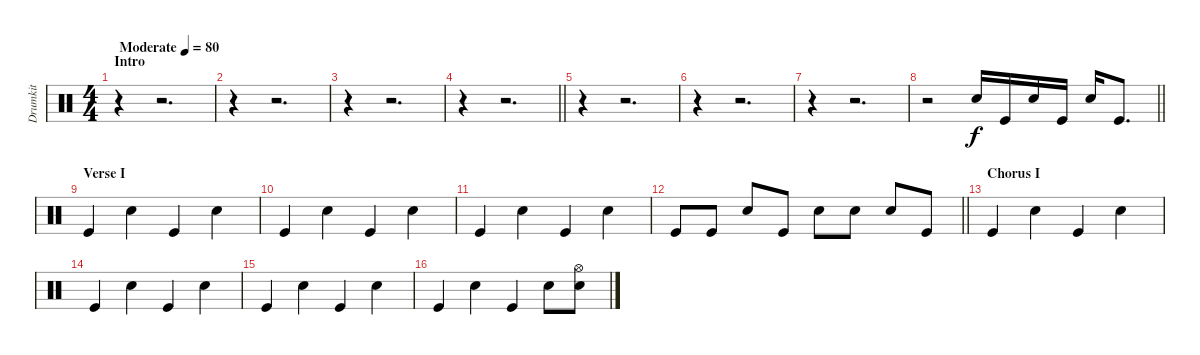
\track ("Drumkit" "Drumkit") {instrument percussion}
\staff {score}
\articulation defaults
\ts (4 4)
\section ("" "Intro")
\tempo (80 "Moderate")
\clef neutral
\ks c
r.4{dy f} r.2{d} |
r.4 r.2{d} |
r.4 r.2{d} |
\barLineRight lightlight
r.4 r.2{d} |
r.4 r.2{d} |
r.4 r.2{d} |
r.4 r.2{d} |
\barLineRight lightlight
r.2 "Snare (hit) 2".16 "Kick (hit)".16 "Snare (hit) 2".16 "Kick (hit)".16 "Snare (hit) 2".16 "Kick (hit)".8{d} |
\section ("" "Verse I")
"Kick (hit)".4 "Snare (hit) 2".4 "Kick (hit)".4 "Snare (hit) 2".4 |
"Kick (hit)".4 "Snare (hit) 2".4 "Kick (hit)".4 "Snare (hit) 2".4 |
"Kick (hit)".4 "Snare (hit) 2".4 "Kick (hit)".4 "Snare (hit) 2".4 |
\barLineRight lightlight "Kick (hit)".8 "Kick (hit)".8 "Snare (hit) 2".8 "Kick (hit)".8 "Snare (hit) 2".8 "Snare (hit) 2".8 "Snare (hit) 2".8 "Kick (hit)".8
|
\section ("" "Chorus I")
"Kick (hit)".4 "Snare (hit) 2".4 "Kick (hit)".4 "Snare (hit) 2".4 |
"Kick (hit)".4 "Snare (hit) 2".4 "Kick (hit)".4 "Snare (hit) 2".4 |
"Kick (hit)".4 "Snare (hit) 2".4 "Kick (hit)".4 "Snare (hit) 2".4 |
"Kick (hit)".4 "Snare (hit) 2".4 "Kick (hit)".4 "Snare (hit) 2".8 ("Hi-Hat (open)" "Snare (hit) 2").8
